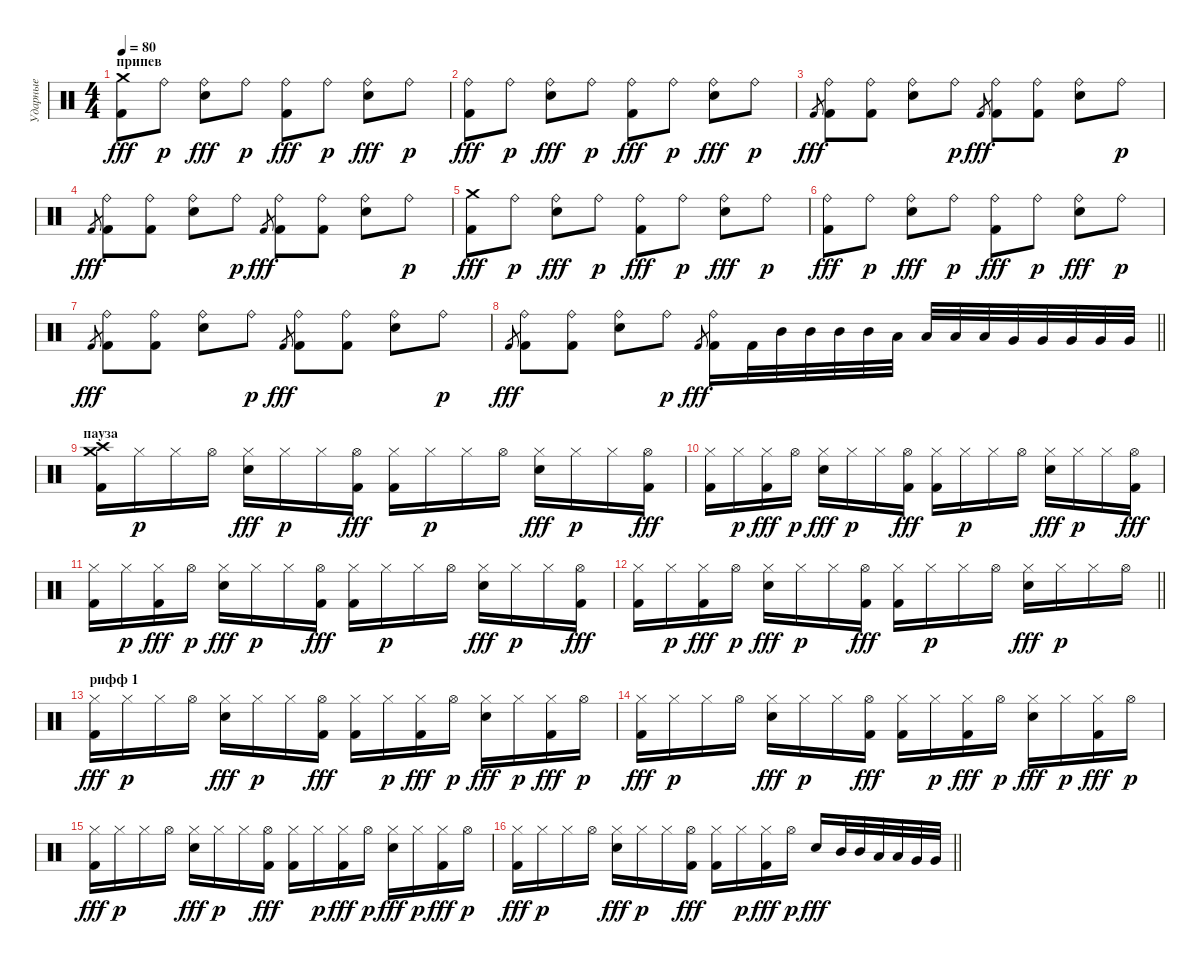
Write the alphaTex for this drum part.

\track ("Ударные" "Ударные") {instrument percussion}
\staff {score}
\articulation defaults
\ts (4 4)
\section ("" "припев")
\tempo 80
\clef neutral
\ks c
("Crash medium (hit)" "Kick (hit) 2").8{dy fff} "Ride (bell)".8{dy p} ("Ride (bell)" "Snare (hit) 2").8{dy fff} "Ride (bell)".8{dy p} ("Ride (bell)" "Kick (hit) 2").8{dy fff} "Ride (bell)".8{dy p} ("Ride (bell)" "Snare (hit) 2").8{dy fff} "Ride (bell)".8{dy p} |
("Ride (bell)" "Kick (hit) 2").8{dy fff} "Ride (bell)".8{dy p} ("Ride (bell)" "Snare (hit) 2").8{dy fff} "Ride (bell)".8{dy p} ("Ride (bell)" "Kick (hit) 2").8{dy fff} "Ride (bell)".8{dy p} ("Ride (bell)" "Snare (hit) 2").8{dy fff} "Ride (bell)".8{dy p} |
"Kick (hit) 2".8{gr dy fff} ("Ride (bell)" "Kick (hit) 2").8 ("Ride (bell)" "Kick (hit) 2").8 ("Ride (bell)" "Snare (hit) 2").8 "Ride (bell)".8{dy p} "Kick (hit) 2".8{gr dy fff} ("Ride (bell)" "Kick (hit) 2").8 ("Ride (bell)" "Kick (hit) 2").8 ("Ride (bell)" "Snare (hit) 2").8 "Ride (bell)".8{dy p} |
"Kick (hit) 2".8{gr dy fff} ("Ride (bell)" "Kick (hit) 2").8 ("Ride (bell)" "Kick (hit) 2").8 ("Ride (bell)" "Snare (hit) 2").8 "Ride (bell)".8{dy p} "Kick (hit) 2".8{gr dy fff} ("Ride (bell)" "Kick (hit) 2").8 ("Ride (bell)" "Kick (hit) 2").8 ("Ride (bell)" "Snare (hit) 2").8 "Ride (bell)".8{dy p} |
("Crash medium (hit)" "Kick (hit) 2").8{dy fff} "Ride (bell)".8{dy p} ("Ride (bell)" "Snare (hit) 2").8{dy fff} "Ride (bell)".8{dy p} ("Ride (bell)" "Kick (hit) 2").8{dy fff} "Ride (bell)".8{dy p} ("Ride (bell)" "Snare (hit) 2").8{dy fff} "Ride (bell)".8{dy p} |
("Ride (bell)" "Kick (hit) 2").8{dy fff} "Ride (bell)".8{dy p} ("Ride (bell)" "Snare (hit) 2").8{dy fff} "Ride (bell)".8{dy p} ("Ride (bell)" "Kick (hit) 2").8{dy fff} "Ride (bell)".8{dy p} ("Ride (bell)" "Snare (hit) 2").8{dy fff} "Ride (bell)".8{dy p} |
"Kick (hit) 2".8{gr dy fff} ("Ride (bell)" "Kick (hit) 2").8 ("Ride (bell)" "Kick (hit) 2").8 ("Ride (bell)" "Snare (hit) 2").8 "Ride (bell)".8{dy p} "Kick (hit) 2".8{gr dy fff} ("Ride (bell)" "Kick (hit) 2").8 ("Ride (bell)" "Kick (hit) 2").8 ("Ride (bell)" "Snare (hit) 2").8 "Ride (bell)".8{dy p} |
\barLineRight lightlight "Kick (hit) 2".8{gr dy fff}
("Ride (bell)" "Kick (hit) 2").8 ("Ride (bell)" "Kick (hit) 2").8 ("Ride (bell)" "Snare (hit) 2").8 "Ride (bell)".8{dy p} "Kick (hit) 2".8{gr dy fff} ("Ride (bell)" "Kick (hit) 2").16 "Kick (hit) 2".32 "Mid Tom (hit)".32 "Mid Tom (hit)".32 "Mid Tom (hit)".32 "Mid Tom (hit)".32 "Low Tom (hit)".32 "Low Tom (hit)".32 "Low Tom (hit)".32 "Low Tom (hit)".32 "Very Low Tom (hit)".32 "Very Low Tom (hit)".32 "Very Low Tom (hit)".32 "Very Low Tom (hit)".32 "Very Low Tom (hit)".32 |
\section ("" "пауза")
("Crash medium (hit)" "Crash high (hit)" "Kick (hit) 2").16 "Hi-Hat (closed)".16{dy p} "Hi-Hat (closed)".16 "Hi-Hat (open)".16 ("Hi-Hat (closed)" "Snare (hit) 2").16{dy fff} "Hi-Hat (closed)".16{dy p} "Hi-Hat (closed)".16 ("Hi-Hat (open)" "Kick (hit) 2").16{dy fff} ("Hi-Hat (closed)" "Kick (hit) 2").16 "Hi-Hat (closed)".16{dy p} "Hi-Hat (closed)".16 "Hi-Hat (open)".16 ("Hi-Hat (closed)" "Snare (hit) 2").16{dy fff} "Hi-Hat (closed)".16{dy p} "Hi-Hat (closed)".16 ("Hi-Hat (open)" "Kick (hit) 2").16{dy fff} |
("Hi-Hat (closed)" "Kick (hit) 2").16 "Hi-Hat (closed)".16{dy p} ("Hi-Hat (closed)" "Kick (hit) 2").16{dy fff} "Hi-Hat (open)".16{dy p} ("Hi-Hat (closed)" "Snare (hit) 2").16{dy fff} "Hi-Hat (closed)".16{dy p} "Hi-Hat (closed)".16 ("Hi-Hat (open)" "Kick (hit) 2").16{dy fff} ("Hi-Hat (closed)" "Kick (hit) 2").16 "Hi-Hat (closed)".16{dy p} "Hi-Hat (closed)".16 "Hi-Hat (open)".16 ("Hi-Hat (closed)" "Snare (hit) 2").16{dy fff} "Hi-Hat (closed)".16{dy p} "Hi-Hat (closed)".16 ("Hi-Hat (open)" "Kick (hit) 2").16{dy fff} |
("Hi-Hat (closed)" "Kick (hit) 2").16 "Hi-Hat (closed)".16{dy p} ("Hi-Hat (closed)" "Kick (hit) 2").16{dy fff} "Hi-Hat (open)".16{dy p} ("Hi-Hat (closed)" "Snare (hit) 2").16{dy fff} "Hi-Hat (closed)".16{dy p} "Hi-Hat (closed)".16 ("Hi-Hat (open)" "Kick (hit) 2").16{dy fff} ("Hi-Hat (closed)" "Kick (hit) 2").16 "Hi-Hat (closed)".16{dy p} "Hi-Hat (closed)".16 "Hi-Hat (open)".16 ("Hi-Hat (closed)" "Snare (hit) 2").16{dy fff} "Hi-Hat (closed)".16{dy p} "Hi-Hat (closed)".16 ("Hi-Hat (open)" "Kick (hit) 2").16{dy fff} |
\barLineRight lightlight
("Hi-Hat (closed)" "Kick (hit) 2").16 "Hi-Hat (closed)".16{dy p} ("Hi-Hat (closed)" "Kick (hit) 2").16{dy fff} "Hi-Hat (open)".16{dy p} ("Hi-Hat (closed)" "Snare (hit) 2").16{dy fff} "Hi-Hat (closed)".16{dy p} "Hi-Hat (closed)".16 ("Hi-Hat (open)" "Kick (hit) 2").16{dy fff} ("Hi-Hat (closed)" "Kick (hit) 2").16 "Hi-Hat (closed)".16{dy p} "Hi-Hat (closed)".16 "Hi-Hat (open)".16 ("Hi-Hat (closed)" "Snare (hit) 2").16{dy fff} "Hi-Hat (closed)".16{dy p} "Hi-Hat (closed)".16 "Hi-Hat (open)".16 |
\section ("" "рифф 1")
("Hi-Hat (closed)" "Kick (hit) 2").16{dy fff} "Hi-Hat (closed)".16{dy p} "Hi-Hat (closed)".16 "Hi-Hat (open)".16 ("Hi-Hat (closed)" "Snare (hit) 2").16{dy fff} "Hi-Hat (closed)".16{dy p} "Hi-Hat (closed)".16 ("Hi-Hat (open)" "Kick (hit) 2").16{dy fff} ("Hi-Hat (closed)" "Kick (hit) 2").16 "Hi-Hat (closed)".16{dy p} ("Hi-Hat (closed)" "Kick (hit) 2").16{dy fff} "Hi-Hat (open)".16{dy p} ("Hi-Hat (closed)" "Snare (hit) 2").16{dy fff} "Hi-Hat (closed)".16{dy p} ("Hi-Hat (closed)" "Kick (hit) 2").16{dy fff} "Hi-Hat (open)".16{dy p} |
("Hi-Hat (closed)" "Kick (hit) 2").16{dy fff} "Hi-Hat (closed)".16{dy p} "Hi-Hat (closed)".16 "Hi-Hat (open)".16 ("Hi-Hat (closed)" "Snare (hit) 2").16{dy fff} "Hi-Hat (closed)".16{dy p} "Hi-Hat (closed)".16 ("Hi-Hat (open)" "Kick (hit) 2").16{dy fff} ("Hi-Hat (closed)" "Kick (hit) 2").16 "Hi-Hat (closed)".16{dy p} ("Hi-Hat (closed)" "Kick (hit) 2").16{dy fff} "Hi-Hat (open)".16{dy p} ("Hi-Hat (closed)" "Snare (hit) 2").16{dy fff} "Hi-Hat (closed)".16{dy p} ("Hi-Hat (closed)" "Kick (hit) 2").16{dy fff} "Hi-Hat (open)".16{dy p} |
("Hi-Hat (closed)" "Kick (hit) 2").16{dy fff} "Hi-Hat (closed)".16{dy p} "Hi-Hat (closed)".16 "Hi-Hat (open)".16 ("Hi-Hat (closed)" "Snare (hit) 2").16{dy fff} "Hi-Hat (closed)".16{dy p} "Hi-Hat (closed)".16 ("Hi-Hat (open)" "Kick (hit) 2").16{dy fff} ("Hi-Hat (closed)" "Kick (hit) 2").16 "Hi-Hat (closed)".16{dy p} ("Hi-Hat (closed)" "Kick (hit) 2").16{dy fff} "Hi-Hat (open)".16{dy p} ("Hi-Hat (closed)" "Snare (hit) 2").16{dy fff} "Hi-Hat (closed)".16{dy p} ("Hi-Hat (closed)" "Kick (hit) 2").16{dy fff} "Hi-Hat (open)".16{dy p} |
\barLineRight lightlight
("Hi-Hat (closed)" "Kick (hit) 2").16{dy fff} "Hi-Hat (closed)".16{dy p} "Hi-Hat (closed)".16 "Hi-Hat (open)".16 ("Hi-Hat (closed)" "Snare (hit) 2").16{dy fff} "Hi-Hat (closed)".16{dy p} "Hi-Hat (closed)".16 ("Hi-Hat (open)" "Kick (hit) 2").16{dy fff} ("Hi-Hat (closed)" "Kick (hit) 2").16 "Hi-Hat (closed)".16{dy p} ("Hi-Hat (closed)" "Kick (hit) 2").16{dy fff} "Hi-Hat (open)".16{dy p} "Snare (hit) 2".16{dy fff} "Mid Tom (hit)".32 "Mid Tom (hit)".32 "Low Tom (hit)".32 "Low Tom (hit)".32 "Very Low Tom (hit)".32 "Very Low Tom (hit)".32
